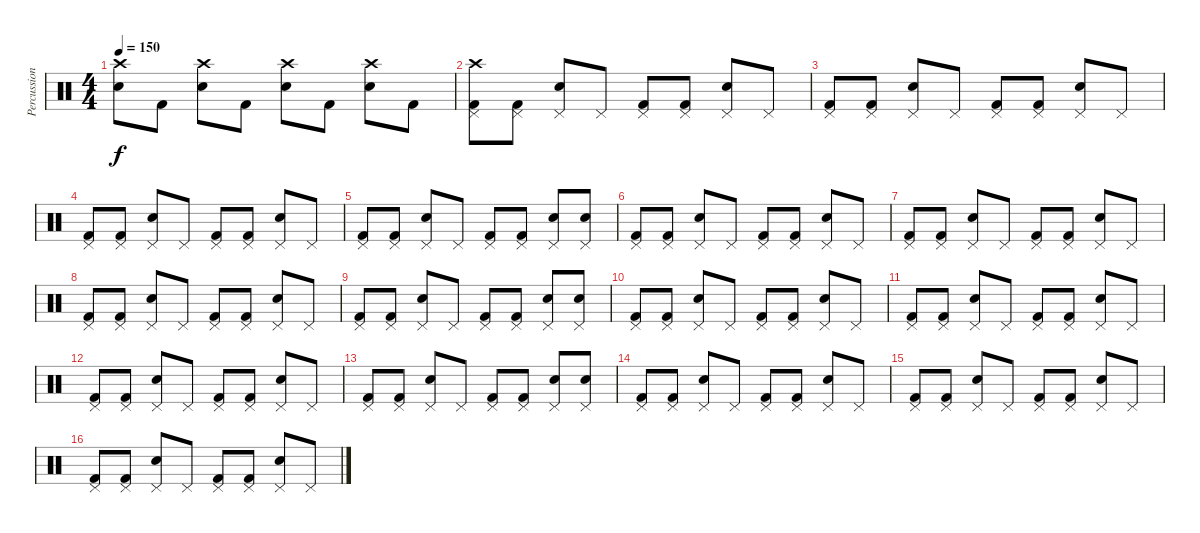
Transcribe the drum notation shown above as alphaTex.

\track ("Percussion" "Percussion") {instrument percussion}
\staff {score}
\articulation defaults
\ts (4 4)
\tempo 150
\clef neutral
\ks c
("Crash high (hit)" "Snare (hit) 2").8{dy f} "Kick (hit) 2".8 ("Crash high (hit)" "Snare (hit) 2").8 "Kick (hit) 2".8 ("Crash high (hit)" "Snare (hit) 2").8 "Kick (hit) 2".8 ("Crash high (hit)" "Snare (hit) 2").8 "Kick (hit) 2".8 |
("Crash high (hit)" "Pedal Hi-Hat (hit)" "Kick (hit) 2").8 ("Pedal Hi-Hat (hit)" "Kick (hit) 2").8 ("Pedal Hi-Hat (hit)" "Snare (hit) 2").8 "Pedal Hi-Hat (hit)".8 ("Pedal Hi-Hat (hit)" "Kick (hit) 2").8 ("Pedal Hi-Hat (hit)" "Kick (hit) 2").8 ("Pedal Hi-Hat (hit)" "Snare (hit) 2").8 "Pedal Hi-Hat (hit)".8 |
("Pedal Hi-Hat (hit)" "Kick (hit) 2").8 ("Pedal Hi-Hat (hit)" "Kick (hit) 2").8 ("Pedal Hi-Hat (hit)" "Snare (hit) 2").8 "Pedal Hi-Hat (hit)".8 ("Pedal Hi-Hat (hit)" "Kick (hit) 2").8 ("Pedal Hi-Hat (hit)" "Kick (hit) 2").8 ("Pedal Hi-Hat (hit)" "Snare (hit) 2").8 "Pedal Hi-Hat (hit)".8 |
("Pedal Hi-Hat (hit)" "Kick (hit) 2").8 ("Pedal Hi-Hat (hit)" "Kick (hit) 2").8 ("Pedal Hi-Hat (hit)" "Snare (hit) 2").8 "Pedal Hi-Hat (hit)".8 ("Pedal Hi-Hat (hit)" "Kick (hit) 2").8 ("Pedal Hi-Hat (hit)" "Kick (hit) 2").8 ("Pedal Hi-Hat (hit)" "Snare (hit) 2").8 "Pedal Hi-Hat (hit)".8 |
("Pedal Hi-Hat (hit)" "Kick (hit) 2").8 ("Pedal Hi-Hat (hit)" "Kick (hit) 2").8 ("Pedal Hi-Hat (hit)" "Snare (hit) 2").8 "Pedal Hi-Hat (hit)".8 ("Pedal Hi-Hat (hit)" "Kick (hit) 2").8 ("Pedal Hi-Hat (hit)" "Kick (hit) 2").8 ("Pedal Hi-Hat (hit)" "Snare (hit) 2").8 ("Pedal Hi-Hat (hit)" "Snare (hit) 2").8 |
("Pedal Hi-Hat (hit)" "Kick (hit) 2").8 ("Pedal Hi-Hat (hit)" "Kick (hit) 2").8 ("Pedal Hi-Hat (hit)" "Snare (hit) 2").8 "Pedal Hi-Hat (hit)".8 ("Pedal Hi-Hat (hit)" "Kick (hit) 2").8 ("Pedal Hi-Hat (hit)" "Kick (hit) 2").8 ("Pedal Hi-Hat (hit)" "Snare (hit) 2").8 "Pedal Hi-Hat (hit)".8 |
("Pedal Hi-Hat (hit)" "Kick (hit) 2").8 ("Pedal Hi-Hat (hit)" "Kick (hit) 2").8 ("Pedal Hi-Hat (hit)" "Snare (hit) 2").8 "Pedal Hi-Hat (hit)".8 ("Pedal Hi-Hat (hit)" "Kick (hit) 2").8 ("Pedal Hi-Hat (hit)" "Kick (hit) 2").8 ("Pedal Hi-Hat (hit)" "Snare (hit) 2").8 "Pedal Hi-Hat (hit)".8 |
("Pedal Hi-Hat (hit)" "Kick (hit) 2").8 ("Pedal Hi-Hat (hit)" "Kick (hit) 2").8 ("Pedal Hi-Hat (hit)" "Snare (hit) 2").8 "Pedal Hi-Hat (hit)".8 ("Pedal Hi-Hat (hit)" "Kick (hit) 2").8 ("Pedal Hi-Hat (hit)" "Kick (hit) 2").8 ("Pedal Hi-Hat (hit)" "Snare (hit) 2").8 "Pedal Hi-Hat (hit)".8 |
("Pedal Hi-Hat (hit)" "Kick (hit) 2").8 ("Pedal Hi-Hat (hit)" "Kick (hit) 2").8 ("Pedal Hi-Hat (hit)" "Snare (hit) 2").8 "Pedal Hi-Hat (hit)".8 ("Pedal Hi-Hat (hit)" "Kick (hit) 2").8 ("Pedal Hi-Hat (hit)" "Kick (hit) 2").8 ("Pedal Hi-Hat (hit)" "Snare (hit) 2").8 ("Pedal Hi-Hat (hit)" "Snare (hit) 2").8 |
("Pedal Hi-Hat (hit)" "Kick (hit) 2").8 ("Pedal Hi-Hat (hit)" "Kick (hit) 2").8 ("Pedal Hi-Hat (hit)" "Snare (hit) 2").8 "Pedal Hi-Hat (hit)".8 ("Pedal Hi-Hat (hit)" "Kick (hit) 2").8 ("Pedal Hi-Hat (hit)" "Kick (hit) 2").8 ("Pedal Hi-Hat (hit)" "Snare (hit) 2").8 "Pedal Hi-Hat (hit)".8 |
("Pedal Hi-Hat (hit)" "Kick (hit) 2").8 ("Pedal Hi-Hat (hit)" "Kick (hit) 2").8 ("Pedal Hi-Hat (hit)" "Snare (hit) 2").8 "Pedal Hi-Hat (hit)".8 ("Pedal Hi-Hat (hit)" "Kick (hit) 2").8 ("Pedal Hi-Hat (hit)" "Kick (hit) 2").8 ("Pedal Hi-Hat (hit)" "Snare (hit) 2").8 "Pedal Hi-Hat (hit)".8 |
("Pedal Hi-Hat (hit)" "Kick (hit) 2").8 ("Pedal Hi-Hat (hit)" "Kick (hit) 2").8 ("Pedal Hi-Hat (hit)" "Snare (hit) 2").8 "Pedal Hi-Hat (hit)".8 ("Pedal Hi-Hat (hit)" "Kick (hit) 2").8 ("Pedal Hi-Hat (hit)" "Kick (hit) 2").8 ("Pedal Hi-Hat (hit)" "Snare (hit) 2").8 "Pedal Hi-Hat (hit)".8 |
("Pedal Hi-Hat (hit)" "Kick (hit) 2").8 ("Pedal Hi-Hat (hit)" "Kick (hit) 2").8 ("Pedal Hi-Hat (hit)" "Snare (hit) 2").8 "Pedal Hi-Hat (hit)".8 ("Pedal Hi-Hat (hit)" "Kick (hit) 2").8 ("Pedal Hi-Hat (hit)" "Kick (hit) 2").8 ("Pedal Hi-Hat (hit)" "Snare (hit) 2").8 ("Pedal Hi-Hat (hit)" "Snare (hit) 2").8 |
("Pedal Hi-Hat (hit)" "Kick (hit) 2").8 ("Pedal Hi-Hat (hit)" "Kick (hit) 2").8 ("Pedal Hi-Hat (hit)" "Snare (hit) 2").8 "Pedal Hi-Hat (hit)".8 ("Pedal Hi-Hat (hit)" "Kick (hit) 2").8 ("Pedal Hi-Hat (hit)" "Kick (hit) 2").8 ("Pedal Hi-Hat (hit)" "Snare (hit) 2").8 "Pedal Hi-Hat (hit)".8 |
("Pedal Hi-Hat (hit)" "Kick (hit) 2").8 ("Pedal Hi-Hat (hit)" "Kick (hit) 2").8 ("Pedal Hi-Hat (hit)" "Snare (hit) 2").8 "Pedal Hi-Hat (hit)".8 ("Pedal Hi-Hat (hit)" "Kick (hit) 2").8 ("Pedal Hi-Hat (hit)" "Kick (hit) 2").8 ("Pedal Hi-Hat (hit)" "Snare (hit) 2").8 "Pedal Hi-Hat (hit)".8 |
("Pedal Hi-Hat (hit)" "Kick (hit) 2").8 ("Pedal Hi-Hat (hit)" "Kick (hit) 2").8 ("Pedal Hi-Hat (hit)" "Snare (hit) 2").8 "Pedal Hi-Hat (hit)".8 ("Pedal Hi-Hat (hit)" "Kick (hit) 2").8 ("Pedal Hi-Hat (hit)" "Kick (hit) 2").8 ("Pedal Hi-Hat (hit)" "Snare (hit) 2").8 "Pedal Hi-Hat (hit)".8
